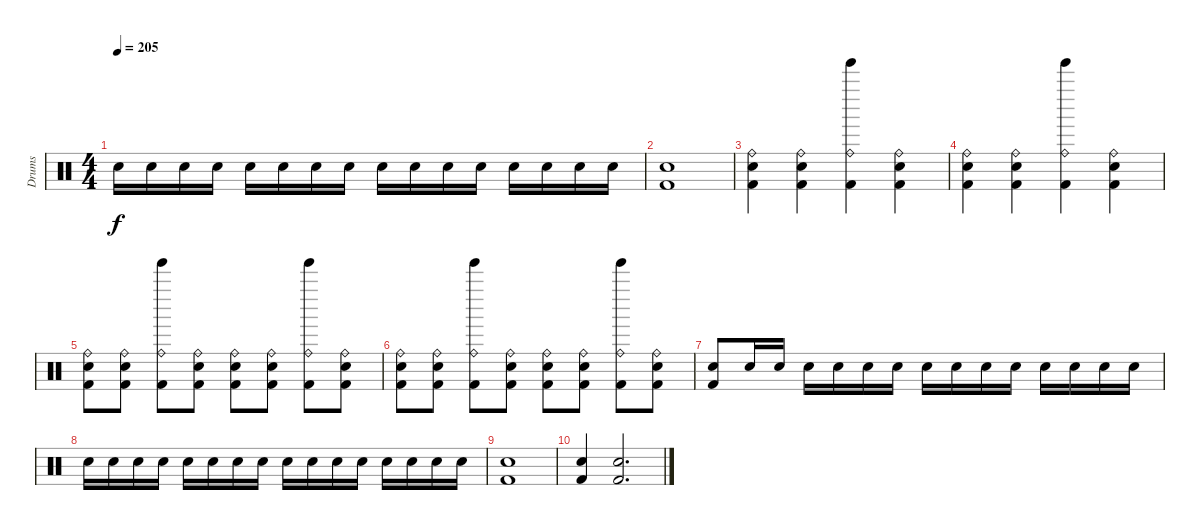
\track ("Drums" "Drums") {instrument percussion}
\staff {score}
\articulation defaults
\ts (4 4)
\tempo 205
\clef neutral
\ks c "Snare (hit) 2".16{dy f} "Snare (hit) 2".16 "Snare (hit) 2".16 "Snare (hit) 2".16 "Snare (hit) 2".16 "Snare (hit) 2".16 "Snare (hit) 2".16 "Snare (hit) 2".16 "Snare (hit) 2".16 "Snare (hit) 2".16 "Snare (hit) 2".16 "Snare (hit) 2".16 "Snare (hit) 2".16 "Snare (hit) 2".16 "Snare (hit) 2".16 "Snare (hit) 2".16
|
("Snare (hit) 2" "Kick (hit) 2").1 |
("Ride (bell)" "Snare (hit) 2" "Kick (hit) 2").4 ("Ride (bell)" "Snare (hit) 2" "Kick (hit) 2").4 ("Ride (bell)" "Tinkle Bell (hit)" "Kick (hit) 2").4 ("Ride (bell)" "Snare (hit) 2" "Kick (hit) 2").4 |
("Ride (bell)" "Snare (hit) 2" "Kick (hit) 2").4 ("Ride (bell)" "Snare (hit) 2" "Kick (hit) 2").4 ("Ride (bell)" "Tinkle Bell (hit)" "Kick (hit) 2").4 ("Ride (bell)" "Snare (hit) 2" "Kick (hit) 2").4 |
("Ride (bell)" "Snare (hit) 2" "Kick (hit) 2").8 ("Ride (bell)" "Snare (hit) 2" "Kick (hit) 2").8 ("Ride (bell)" "Tinkle Bell (hit)" "Kick (hit) 2").8 ("Ride (bell)" "Snare (hit) 2" "Kick (hit) 2").8 ("Ride (bell)" "Snare (hit) 2" "Kick (hit) 2").8 ("Ride (bell)" "Snare (hit) 2" "Kick (hit) 2").8 ("Ride (bell)" "Tinkle Bell (hit)" "Kick (hit) 2").8 ("Ride (bell)" "Snare (hit) 2" "Kick (hit) 2").8 |
("Ride (bell)" "Snare (hit) 2" "Kick (hit) 2").8 ("Ride (bell)" "Snare (hit) 2" "Kick (hit) 2").8 ("Ride (bell)" "Tinkle Bell (hit)" "Kick (hit) 2").8 ("Ride (bell)" "Snare (hit) 2" "Kick (hit) 2").8 ("Ride (bell)" "Snare (hit) 2" "Kick (hit) 2").8 ("Ride (bell)" "Snare (hit) 2" "Kick (hit) 2").8 ("Ride (bell)" "Tinkle Bell (hit)" "Kick (hit) 2").8 ("Ride (bell)" "Snare (hit) 2" "Kick (hit) 2").8 |
("Snare (hit) 2" "Kick (hit) 2").8 "Snare (hit) 2".16 "Snare (hit) 2".16 "Snare (hit) 2".16 "Snare (hit) 2".16 "Snare (hit) 2".16 "Snare (hit) 2".16 "Snare (hit) 2".16 "Snare (hit) 2".16 "Snare (hit) 2".16 "Snare (hit) 2".16 "Snare (hit) 2".16 "Snare (hit) 2".16 "Snare (hit) 2".16 "Snare (hit) 2".16 |
"Snare (hit) 2".16 "Snare (hit) 2".16 "Snare (hit) 2".16 "Snare (hit) 2".16 "Snare (hit) 2".16 "Snare (hit) 2".16 "Snare (hit) 2".16 "Snare (hit) 2".16 "Snare (hit) 2".16 "Snare (hit) 2".16 "Snare (hit) 2".16 "Snare (hit) 2".16 "Snare (hit) 2".16 "Snare (hit) 2".16 "Snare (hit) 2".16 "Snare (hit) 2".16 |
("Snare (hit) 2" "Kick (hit) 2").1 |
("Snare (hit) 2" "Kick (hit) 2").4 ("Snare (hit) 2" "Kick (hit) 2").2{d}
